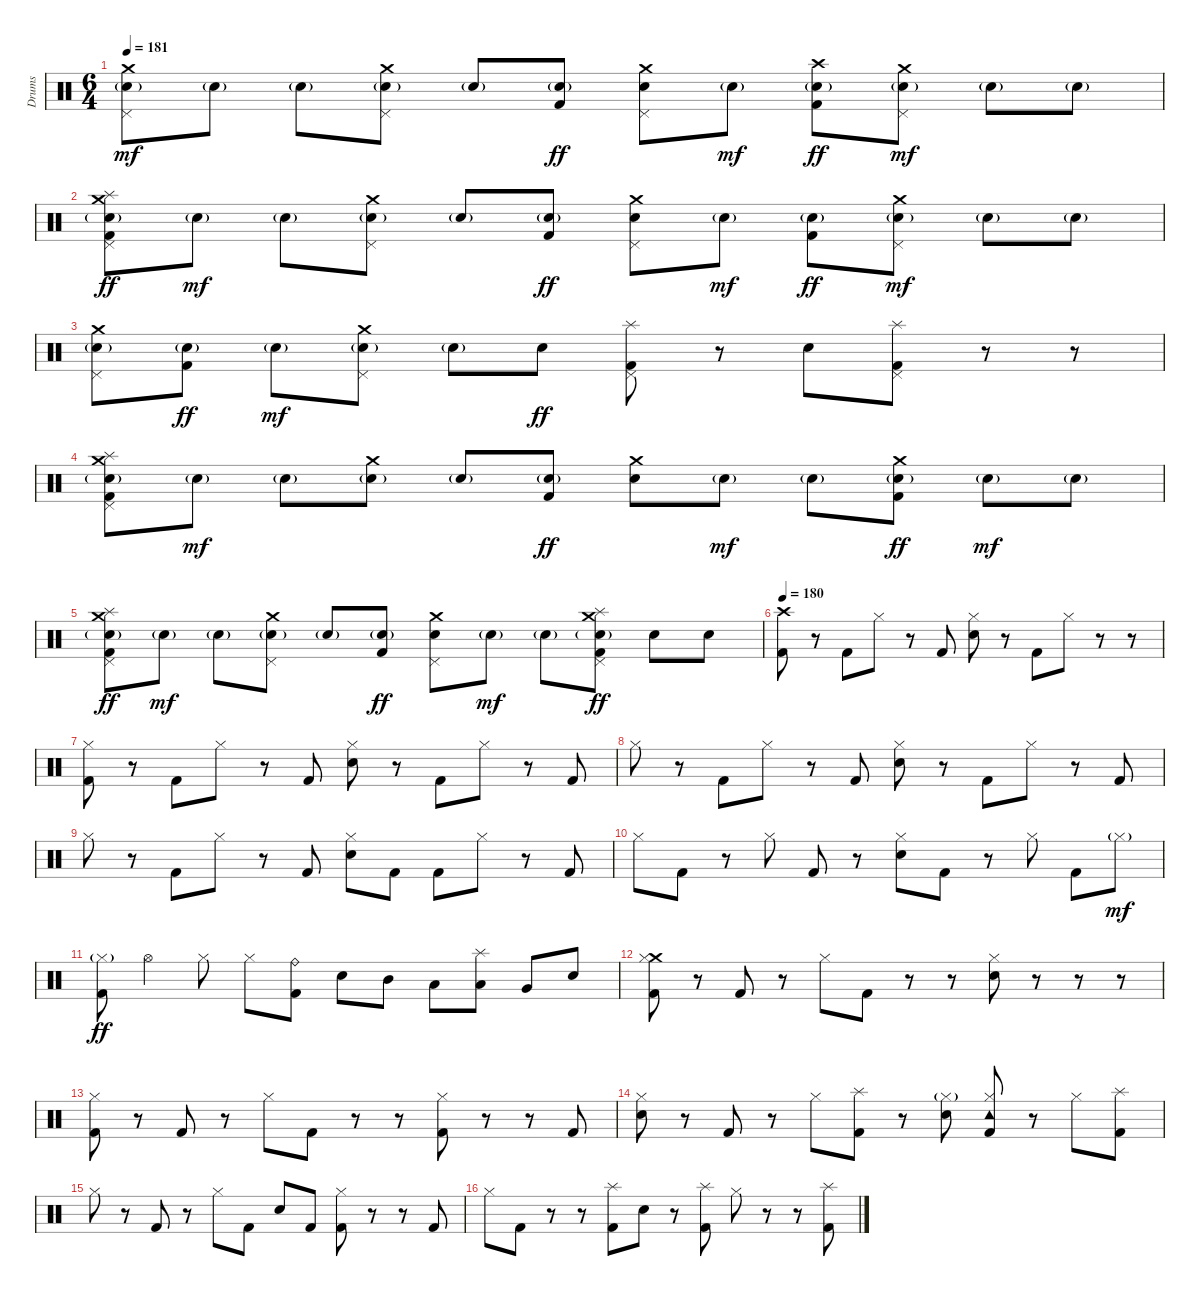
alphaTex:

\track ("Drums" "Drums") {instrument percussion}
\staff {score}
\articulation defaults
\ts (6 4)
\tempo 181
\clef neutral
\ks c
("Crash medium (hit)" "Pedal Hi-Hat (hit)" "Electric Snare (hit)"{g}).8{dy mf} "Electric Snare (hit)"{g}.8 "Electric Snare (hit)"{g}.8 ("Crash medium (hit)" "Pedal Hi-Hat (hit)" "Electric Snare (hit)"{g}).8 "Electric Snare (hit)"{g}.8 ("Electric Snare (hit)"{g} "Kick (hit) 2").8{dy ff} ("Crash medium (hit)" "Pedal Hi-Hat (hit)" "Electric Snare (hit)").8 "Electric Snare (hit)"{g}.8{dy mf} ("Crash high (hit)" "Electric Snare (hit)"{g} "Kick (hit) 2").8{dy ff} ("Crash medium (hit)" "Pedal Hi-Hat (hit)" "Electric Snare (hit)"{g}).8{dy mf} "Electric Snare (hit)"{g}.8 "Electric Snare (hit)"{g}.8 |
("Crash medium (hit)" "Splash (hit)" "Pedal Hi-Hat (hit)" "Electric Snare (hit)"{g} "Kick (hit) 2").8{dy ff} "Electric Snare (hit)"{g}.8{dy mf} "Electric Snare (hit)"{g}.8 ("Crash medium (hit)" "Pedal Hi-Hat (hit)" "Electric Snare (hit)"{g}).8 "Electric Snare (hit)"{g}.8 ("Electric Snare (hit)"{g} "Kick (hit) 2").8{dy ff} ("Crash medium (hit)" "Pedal Hi-Hat (hit)" "Electric Snare (hit)").8 "Electric Snare (hit)"{g}.8{dy mf} ("Electric Snare (hit)"{g} "Kick (hit) 2").8{dy ff} ("Crash medium (hit)" "Pedal Hi-Hat (hit)" "Electric Snare (hit)"{g}).8{dy mf} "Electric Snare (hit)"{g}.8 "Electric Snare (hit)"{g}.8 |
("Crash medium (hit)" "Pedal Hi-Hat (hit)" "Electric Snare (hit)"{g}).8 ("Electric Snare (hit)"{g} "Kick (hit) 2").8{dy ff} "Electric Snare (hit)"{g}.8{dy mf} ("Crash medium (hit)" "Pedal Hi-Hat (hit)" "Electric Snare (hit)"{g}).8 "Electric Snare (hit)"{g}.8 "Electric Snare (hit)".8{dy ff} ("Splash (hit)" "Pedal Hi-Hat (hit)" "Kick (hit) 2").8 r.8 "Electric Snare (hit)".8 ("Splash (hit)" "Pedal Hi-Hat (hit)" "Kick (hit) 2").8 r.8 r.8 |
("Crash medium (hit)" "Splash (hit)" "Pedal Hi-Hat (hit)" "Electric Snare (hit)"{g} "Kick (hit) 2").8 "Electric Snare (hit)"{g}.8{dy mf} "Electric Snare (hit)"{g}.8 ("Crash medium (hit)" "Electric Snare (hit)"{g}).8 "Electric Snare (hit)"{g}.8 ("Electric Snare (hit)"{g} "Kick (hit) 2").8{dy ff} ("Crash medium (hit)" "Electric Snare (hit)").8 "Electric Snare (hit)"{g}.8{dy mf} "Electric Snare (hit)"{g}.8 ("Crash medium (hit)" "Electric Snare (hit)"{g} "Kick (hit) 2").8{dy ff} "Electric Snare (hit)"{g}.8{dy mf} "Electric Snare (hit)"{g}.8 |
("Crash medium (hit)" "Splash (hit)" "Pedal Hi-Hat (hit)" "Electric Snare (hit)"{g} "Kick (hit) 2").8{dy ff} "Electric Snare (hit)"{g}.8{dy mf} "Electric Snare (hit)"{g}.8 ("Crash medium (hit)" "Pedal Hi-Hat (hit)" "Electric Snare (hit)"{g}).8 "Electric Snare (hit)"{g}.8 ("Electric Snare (hit)"{g} "Kick (hit) 2").8{dy ff} ("Crash medium (hit)" "Pedal Hi-Hat (hit)" "Electric Snare (hit)").8 "Electric Snare (hit)"{g}.8{dy mf} "Electric Snare (hit)"{g}.8 ("Crash medium (hit)" "Splash (hit)" "Pedal Hi-Hat (hit)" "Electric Snare (hit)"{g} "Kick (hit) 2").8{dy ff} "Electric Snare (hit)".8 "Electric Snare (hit)".8 |
\section ("" "")
\tempo 180
("Crash high (hit)" "Kick (hit) 2").8 r.8 "Kick (hit) 2".8 "Hi-Hat (closed)".8 r.8 "Kick (hit) 2".8 ("Hi-Hat (closed)" "Electric Snare (hit)").8 r.8 "Kick (hit) 2".8 "Hi-Hat (closed)".8 r.8 r.8 |
("Hi-Hat (closed)" "Kick (hit) 2").8 r.8 "Kick (hit) 2".8 "Hi-Hat (closed)".8 r.8 "Kick (hit) 2".8 ("Hi-Hat (closed)" "Electric Snare (hit)").8 r.8 "Kick (hit) 2".8 "Hi-Hat (closed)".8 r.8 "Kick (hit) 2".8 |
"Hi-Hat (closed)".8 r.8 "Kick (hit) 2".8 "Hi-Hat (closed)".8 r.8 "Kick (hit) 2".8 ("Hi-Hat (closed)" "Electric Snare (hit)").8 r.8 "Kick (hit) 2".8 "Hi-Hat (closed)".8 r.8 "Kick (hit) 2".8 |
"Hi-Hat (closed)".8 r.8 "Kick (hit) 2".8 "Hi-Hat (closed)".8 r.8 "Kick (hit) 2".8 ("Hi-Hat (closed)" "Electric Snare (hit)").8 "Kick (hit) 2".8 "Kick (hit) 2".8 "Hi-Hat (closed)".8 r.8 "Kick (hit) 2".8 |
"Hi-Hat (closed)".8 "Kick (hit) 2".8 r.8 "Hi-Hat (closed)".8 "Kick (hit) 2".8 r.8 ("Hi-Hat (closed)" "Electric Snare (hit)").8 "Kick (hit) 2".8 r.8 "Hi-Hat (closed)".8 "Kick (hit) 2".8 "Hi-Hat (closed)"{g}.8{dy mf} |
("Hi-Hat (closed)"{g} "Kick (hit) 2").8{dy ff} "Hi-Hat (open)".4 "Hi-Hat (closed)".8 "Hi-Hat (closed)".8 ("Ride (bell)" "Kick (hit) 2").8 "Electric Snare (hit)".8 "Mid Tom (hit)".8 "Low Tom (hit)".8 ("Splash (hit)" "Low Tom (hit)").8 "Very Low Tom (hit)".8 "Electric Snare (hit)".8 |
\section ("" "")
("Crash medium (hit)" "Hi-Hat (closed)" "Kick (hit) 2").8 r.8 "Kick (hit) 2".8 r.8 "Hi-Hat (closed)".8 "Kick (hit) 2".8 r.8 r.8 ("Hi-Hat (closed)" "Electric Snare (hit)").8 r.8 r.8 r.8 |
("Hi-Hat (closed)" "Kick (hit) 2").8 r.8 "Kick (hit) 2".8 r.8 "Hi-Hat (closed)".8 "Kick (hit) 2".8 r.8 r.8 ("Hi-Hat (closed)" "Kick (hit) 2").8 r.8 r.8 "Kick (hit) 2".8 |
("Hi-Hat (closed)" "Electric Snare (hit)").8 r.8 "Kick (hit) 2".8 r.8 "Hi-Hat (closed)".8 ("Splash (hit)" "Kick (hit) 2").8 r.8 ("Hi-Hat (closed)"{g} "Electric Snare (hit)").8 ("Tambourine (hit)" "Hi-Hat (closed)" "Kick (hit) 2").8 r.8 "Hi-Hat (closed)".8 ("Splash (hit)" "Kick (hit) 2").8 |
"Hi-Hat (closed)".8 r.8 "Kick (hit) 2".8 r.8 "Hi-Hat (closed)".8 "Kick (hit) 2".8 "Electric Snare (hit)".8 "Kick (hit) 2".8 ("Hi-Hat (closed)" "Kick (hit) 2").8 r.8 r.8 "Kick (hit) 2".8 |
"Hi-Hat (closed)".8 "Kick (hit) 2".8 r.8 r.8 ("Splash (hit)" "Kick (hit) 2").8 "Electric Snare (hit)".8 r.8 ("Splash (hit)" "Kick (hit) 2").8 "Hi-Hat (closed)".8 r.8 r.8 ("Splash (hit)" "Kick (hit) 2").8
